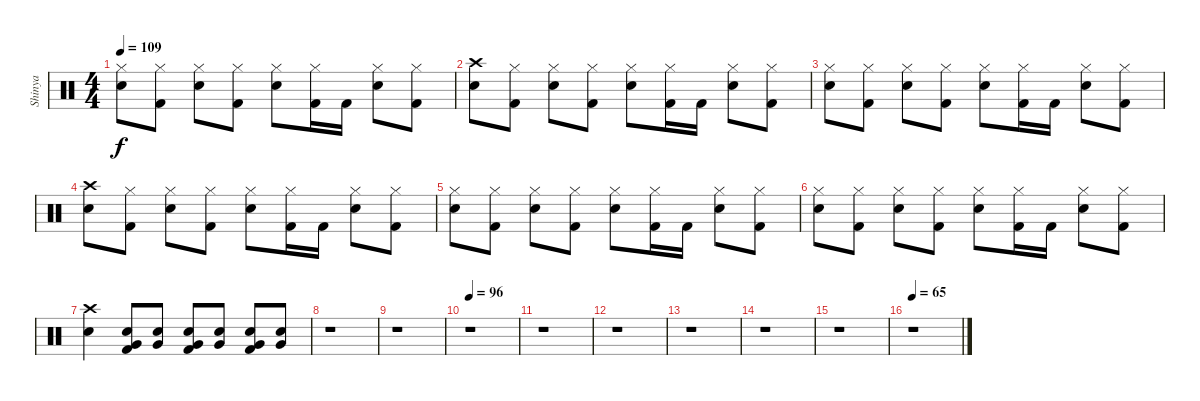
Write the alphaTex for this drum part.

\track ("Shinya" "Shinya") {instrument percussion}
\staff {score}
\articulation defaults
\ts (4 4)
\tempo 109
\clef neutral
\ks c
("Hi-Hat (closed)" "Snare (hit) 2").8{dy f} ("Hi-Hat (closed)" "Kick (hit) 2").8 ("Hi-Hat (closed)" "Snare (hit) 2").8 ("Hi-Hat (closed)" "Kick (hit) 2").8 ("Hi-Hat (closed)" "Snare (hit) 2").8 ("Hi-Hat (closed)" "Kick (hit) 2").16 "Kick (hit) 2".16 ("Hi-Hat (closed)" "Snare (hit) 2").8 ("Hi-Hat (closed)" "Kick (hit) 2").8 |
("Crash high (hit)" "Snare (hit) 2").8 ("Hi-Hat (closed)" "Kick (hit) 2").8 ("Hi-Hat (closed)" "Snare (hit) 2").8 ("Hi-Hat (closed)" "Kick (hit) 2").8 ("Hi-Hat (closed)" "Snare (hit) 2").8 ("Hi-Hat (closed)" "Kick (hit) 2").16 "Kick (hit) 2".16 ("Hi-Hat (closed)" "Snare (hit) 2").8 ("Hi-Hat (closed)" "Kick (hit) 2").8 |
("Hi-Hat (closed)" "Snare (hit) 2").8 ("Hi-Hat (closed)" "Kick (hit) 2").8 ("Hi-Hat (closed)" "Snare (hit) 2").8 ("Hi-Hat (closed)" "Kick (hit) 2").8 ("Hi-Hat (closed)" "Snare (hit) 2").8 ("Hi-Hat (closed)" "Kick (hit) 2").16 "Kick (hit) 2".16 ("Hi-Hat (closed)" "Snare (hit) 2").8 ("Hi-Hat (closed)" "Kick (hit) 2").8 |
("Crash high (hit)" "Snare (hit) 2").8 ("Hi-Hat (closed)" "Kick (hit) 2").8 ("Hi-Hat (closed)" "Snare (hit) 2").8 ("Hi-Hat (closed)" "Kick (hit) 2").8 ("Hi-Hat (closed)" "Snare (hit) 2").8 ("Hi-Hat (closed)" "Kick (hit) 2").16 "Kick (hit) 2".16 ("Hi-Hat (closed)" "Snare (hit) 2").8 ("Hi-Hat (closed)" "Kick (hit) 2").8 |
("Hi-Hat (closed)" "Snare (hit) 2").8 ("Hi-Hat (closed)" "Kick (hit) 2").8 ("Hi-Hat (closed)" "Snare (hit) 2").8 ("Hi-Hat (closed)" "Kick (hit) 2").8 ("Hi-Hat (closed)" "Snare (hit) 2").8 ("Hi-Hat (closed)" "Kick (hit) 2").16 "Kick (hit) 2".16 ("Hi-Hat (closed)" "Snare (hit) 2").8 ("Hi-Hat (closed)" "Kick (hit) 2").8 |
("Hi-Hat (closed)" "Snare (hit) 2").8 ("Hi-Hat (closed)" "Kick (hit) 2").8 ("Hi-Hat (closed)" "Snare (hit) 2").8 ("Hi-Hat (closed)" "Kick (hit) 2").8 ("Hi-Hat (closed)" "Snare (hit) 2").8 ("Hi-Hat (closed)" "Kick (hit) 2").16 "Kick (hit) 2".16 ("Hi-Hat (closed)" "Snare (hit) 2").8 ("Hi-Hat (closed)" "Kick (hit) 2").8 |
("Crash high (hit)" "Snare (hit) 2").4 ("Snare (hit) 2" "Very Low Tom (hit)" "Kick (hit) 2").8 ("Snare (hit) 2" "Very Low Tom (hit)").8 ("Snare (hit) 2" "Very Low Tom (hit)" "Kick (hit) 2").8 ("Snare (hit) 2" "Very Low Tom (hit)").8 ("Snare (hit) 2" "Very Low Tom (hit)" "Kick (hit) 2").8 ("Snare (hit) 2" "Very Low Tom (hit)").8 |
r.1 |
r.1 |
\tempo 96
r.1 |
r.1 |
r.1 |
r.1 |
r.1 |
r.1 |
\tempo 65
r.1
